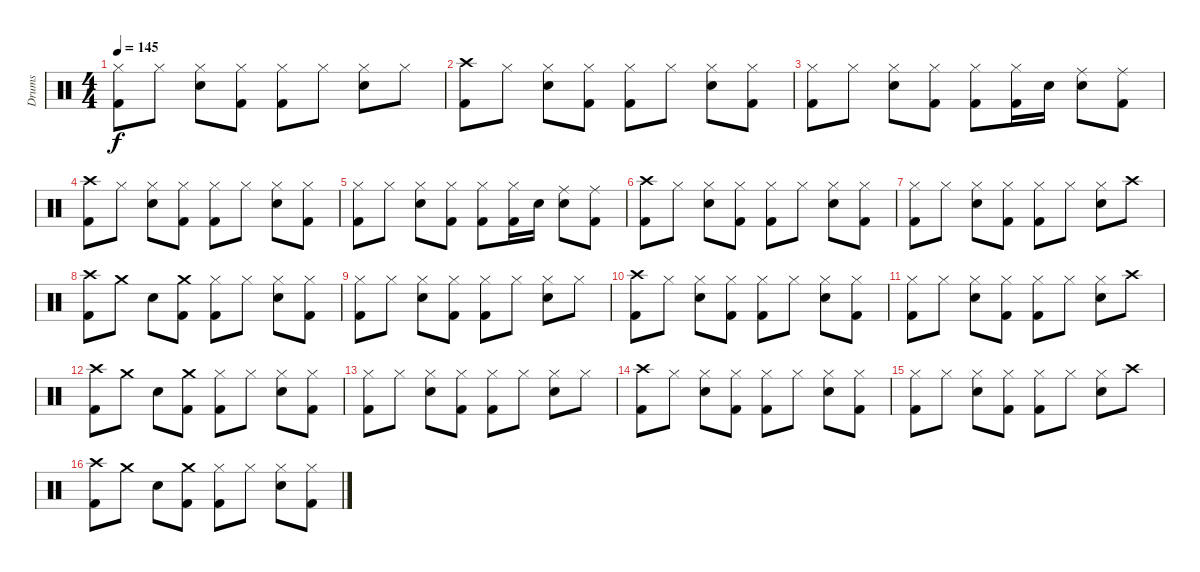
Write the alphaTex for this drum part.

\track ("Drums" "Drums") {instrument percussion}
\staff {score}
\articulation defaults
\ts (4 4)
\tempo 145
\clef neutral
\ks c
("Kick (hit) 2" "Hi-Hat (closed)").8{dy f} "Hi-Hat (closed)".8 ("Electric Snare (hit)" "Hi-Hat (closed)").8 ("Kick (hit) 2" "Hi-Hat (closed)").8 ("Kick (hit) 2" "Hi-Hat (closed)").8 "Hi-Hat (closed)".8 ("Electric Snare (hit)" "Hi-Hat (closed)").8 "Hi-Hat (closed)".8 |
("Kick (hit) 2" "Crash high (hit)").8 "Hi-Hat (closed)".8 ("Electric Snare (hit)" "Hi-Hat (closed)").8 ("Kick (hit) 2" "Hi-Hat (closed)").8 ("Kick (hit) 2" "Hi-Hat (closed)").8 "Hi-Hat (closed)".8 ("Electric Snare (hit)" "Hi-Hat (closed)").8 ("Kick (hit) 2" "Hi-Hat (closed)").8 |
("Kick (hit) 2" "Hi-Hat (closed)").8 "Hi-Hat (closed)".8 ("Electric Snare (hit)" "Hi-Hat (closed)").8 ("Kick (hit) 2" "Hi-Hat (closed)").8 ("Kick (hit) 2" "Hi-Hat (closed)").8 ("Kick (hit) 2" "Hi-Hat (closed)").16 "Electric Snare (hit)".16 ("Electric Snare (hit)" "Ride (middle)").8 ("Kick (hit) 2" "Ride (middle)").8 |
("Kick (hit) 2" "Crash high (hit)").8 "Hi-Hat (closed)".8 ("Electric Snare (hit)" "Hi-Hat (closed)").8 ("Kick (hit) 2" "Hi-Hat (closed)").8 ("Kick (hit) 2" "Hi-Hat (closed)").8 "Hi-Hat (closed)".8 ("Electric Snare (hit)" "Hi-Hat (closed)").8 ("Kick (hit) 2" "Hi-Hat (closed)").8 |
("Kick (hit) 2" "Hi-Hat (closed)").8 "Hi-Hat (closed)".8 ("Electric Snare (hit)" "Hi-Hat (closed)").8 ("Kick (hit) 2" "Hi-Hat (closed)").8 ("Kick (hit) 2" "Hi-Hat (closed)").8 ("Kick (hit) 2" "Hi-Hat (closed)").16 "Electric Snare (hit)".16 ("Electric Snare (hit)" "Ride (middle)").8 ("Kick (hit) 2" "Ride (middle)").8 |
("Kick (hit) 2" "Crash high (hit)").8 "Hi-Hat (closed)".8 ("Electric Snare (hit)" "Hi-Hat (closed)").8 ("Kick (hit) 2" "Hi-Hat (closed)").8 ("Kick (hit) 2" "Hi-Hat (closed)").8 "Hi-Hat (closed)".8 ("Electric Snare (hit)" "Hi-Hat (closed)").8 ("Kick (hit) 2" "Hi-Hat (closed)").8 |
("Kick (hit) 2" "Hi-Hat (closed)").8 "Hi-Hat (closed)".8 ("Electric Snare (hit)" "Hi-Hat (closed)").8 ("Kick (hit) 2" "Hi-Hat (closed)").8 ("Kick (hit) 2" "Hi-Hat (closed)").8 "Hi-Hat (closed)".8 ("Electric Snare (hit)" "Hi-Hat (closed)").8 "Crash high (hit)".8 |
("Kick (hit) 2" "Crash high (hit)").8 "Crash medium (hit)".8 "Electric Snare (hit)".8 ("Kick (hit) 2" "Crash medium (hit)").8 ("Kick (hit) 2" "Hi-Hat (closed)").8 "Hi-Hat (closed)".8 ("Electric Snare (hit)" "Hi-Hat (closed)").8 ("Kick (hit) 2" "Hi-Hat (closed)").8 |
("Kick (hit) 2" "Hi-Hat (closed)").8 "Hi-Hat (closed)".8 ("Electric Snare (hit)" "Hi-Hat (closed)").8 ("Kick (hit) 2" "Hi-Hat (closed)").8 ("Kick (hit) 2" "Hi-Hat (closed)").8 "Hi-Hat (closed)".8 ("Electric Snare (hit)" "Hi-Hat (closed)").8 "Hi-Hat (closed)".8 |
("Kick (hit) 2" "Crash high (hit)").8 "Hi-Hat (closed)".8 ("Electric Snare (hit)" "Hi-Hat (closed)").8 ("Kick (hit) 2" "Hi-Hat (closed)").8 ("Kick (hit) 2" "Hi-Hat (closed)").8 "Hi-Hat (closed)".8 ("Electric Snare (hit)" "Hi-Hat (closed)").8 ("Kick (hit) 2" "Hi-Hat (closed)").8 |
("Kick (hit) 2" "Hi-Hat (closed)").8 "Hi-Hat (closed)".8 ("Electric Snare (hit)" "Hi-Hat (closed)").8 ("Kick (hit) 2" "Hi-Hat (closed)").8 ("Kick (hit) 2" "Hi-Hat (closed)").8 "Hi-Hat (closed)".8 ("Electric Snare (hit)" "Hi-Hat (closed)").8 "Crash high (hit)".8 |
("Kick (hit) 2" "Crash high (hit)").8 "Crash medium (hit)".8 "Electric Snare (hit)".8 ("Kick (hit) 2" "Crash medium (hit)").8 ("Kick (hit) 2" "Hi-Hat (closed)").8 "Hi-Hat (closed)".8 ("Electric Snare (hit)" "Hi-Hat (closed)").8 ("Kick (hit) 2" "Hi-Hat (closed)").8 |
("Kick (hit) 2" "Hi-Hat (closed)").8 "Hi-Hat (closed)".8 ("Electric Snare (hit)" "Hi-Hat (closed)").8 ("Kick (hit) 2" "Hi-Hat (closed)").8 ("Kick (hit) 2" "Hi-Hat (closed)").8 "Hi-Hat (closed)".8 ("Electric Snare (hit)" "Hi-Hat (closed)").8 "Hi-Hat (closed)".8 |
("Kick (hit) 2" "Crash high (hit)").8 "Hi-Hat (closed)".8 ("Electric Snare (hit)" "Hi-Hat (closed)").8 ("Kick (hit) 2" "Hi-Hat (closed)").8 ("Kick (hit) 2" "Hi-Hat (closed)").8 "Hi-Hat (closed)".8 ("Electric Snare (hit)" "Hi-Hat (closed)").8 ("Kick (hit) 2" "Hi-Hat (closed)").8 |
("Kick (hit) 2" "Hi-Hat (closed)").8 "Hi-Hat (closed)".8 ("Electric Snare (hit)" "Hi-Hat (closed)").8 ("Kick (hit) 2" "Hi-Hat (closed)").8 ("Kick (hit) 2" "Hi-Hat (closed)").8 "Hi-Hat (closed)".8 ("Electric Snare (hit)" "Hi-Hat (closed)").8 "Crash high (hit)".8 |
("Kick (hit) 2" "Crash high (hit)").8 "Crash medium (hit)".8 "Electric Snare (hit)".8 ("Kick (hit) 2" "Crash medium (hit)").8 ("Kick (hit) 2" "Hi-Hat (closed)").8 "Hi-Hat (closed)".8 ("Electric Snare (hit)" "Hi-Hat (closed)").8 ("Kick (hit) 2" "Hi-Hat (closed)").8
